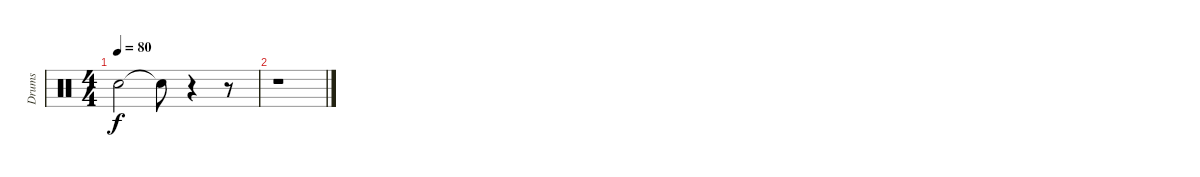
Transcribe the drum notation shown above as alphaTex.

\track ("Drums" "Drums") {instrument percussion}
\staff {score}
\articulation defaults
\ts (4 4)
\tempo 80
\clef neutral
\ks c "Snare (hit)"{t}.2{dy f} "Snare (hit)"{t}.8
r.4 r.8 |
r.1
